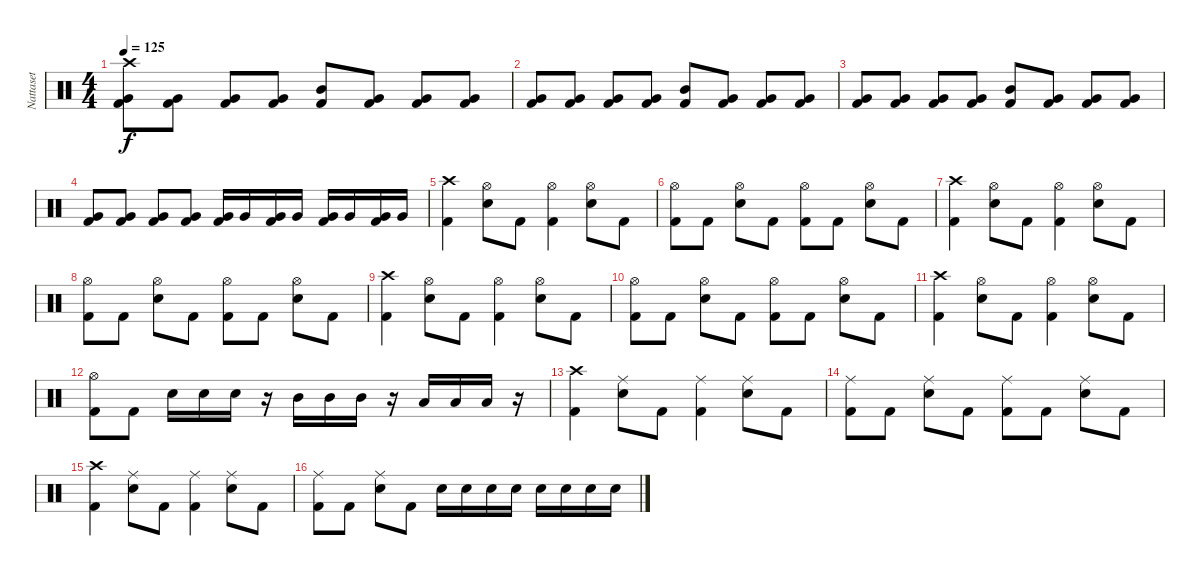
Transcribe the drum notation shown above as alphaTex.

\track ("Nattaset" "Nattaset") {instrument percussion}
\staff {score}
\articulation defaults
\ts (4 4)
\tempo 125
\clef neutral
\ks c
("Kick (hit) 2" "Very Low Tom (hit)" "Crash high (hit)").8{dy f} ("Kick (hit) 2" "Very Low Tom (hit)").8 ("Kick (hit) 2" "Very Low Tom (hit)").8 ("Kick (hit) 2" "Very Low Tom (hit)").8 ("Kick (hit) 2" "Mid Tom (hit)").8 ("Kick (hit) 2" "Very Low Tom (hit)").8 ("Kick (hit) 2" "Very Low Tom (hit)").8 ("Kick (hit) 2" "Very Low Tom (hit)").8 |
("Kick (hit) 2" "Very Low Tom (hit)").8 ("Kick (hit) 2" "Very Low Tom (hit)").8 ("Kick (hit) 2" "Very Low Tom (hit)").8 ("Kick (hit) 2" "Very Low Tom (hit)").8 ("Kick (hit) 2" "Mid Tom (hit)").8 ("Kick (hit) 2" "Very Low Tom (hit)").8 ("Kick (hit) 2" "Very Low Tom (hit)").8 ("Kick (hit) 2" "Very Low Tom (hit)").8 |
("Kick (hit) 2" "Very Low Tom (hit)").8 ("Kick (hit) 2" "Very Low Tom (hit)").8 ("Kick (hit) 2" "Very Low Tom (hit)").8 ("Kick (hit) 2" "Very Low Tom (hit)").8 ("Kick (hit) 2" "Mid Tom (hit)").8 ("Kick (hit) 2" "Very Low Tom (hit)").8 ("Kick (hit) 2" "Very Low Tom (hit)").8 ("Kick (hit) 2" "Very Low Tom (hit)").8 |
("Kick (hit) 2" "Very Low Tom (hit)").8 ("Kick (hit) 2" "Very Low Tom (hit)").8 ("Kick (hit) 2" "Very Low Tom (hit)").8 ("Kick (hit) 2" "Very Low Tom (hit)").8 ("Kick (hit) 2" "Very Low Tom (hit)").16 "Very Low Tom (hit)".16 ("Kick (hit) 2" "Very Low Tom (hit)").16 "Very Low Tom (hit)".16 ("Kick (hit) 2" "Very Low Tom (hit)").16 "Very Low Tom (hit)".16 ("Kick (hit) 2" "Very Low Tom (hit)").16 "Very Low Tom (hit)".16 |
("Kick (hit) 2" "Crash high (hit)").4 ("Snare (hit) 2" "Hi-Hat (open)").8 "Kick (hit) 2".8 ("Kick (hit) 2" "Hi-Hat (open)").4 ("Snare (hit) 2" "Hi-Hat (open)").8 "Kick (hit) 2".8 |
("Kick (hit) 2" "Hi-Hat (open)").8 "Kick (hit) 2".8 ("Snare (hit) 2" "Hi-Hat (open)").8 "Kick (hit) 2".8 ("Kick (hit) 2" "Hi-Hat (open)").8 "Kick (hit) 2".8 ("Snare (hit) 2" "Hi-Hat (open)").8 "Kick (hit) 2".8 |
("Kick (hit) 2" "Crash high (hit)").4 ("Snare (hit) 2" "Hi-Hat (open)").8 "Kick (hit) 2".8 ("Kick (hit) 2" "Hi-Hat (open)").4 ("Snare (hit) 2" "Hi-Hat (open)").8 "Kick (hit) 2".8 |
("Kick (hit) 2" "Hi-Hat (open)").8 "Kick (hit) 2".8 ("Snare (hit) 2" "Hi-Hat (open)").8 "Kick (hit) 2".8 ("Kick (hit) 2" "Hi-Hat (open)").8 "Kick (hit) 2".8 ("Snare (hit) 2" "Hi-Hat (open)").8 "Kick (hit) 2".8 |
("Kick (hit) 2" "Crash high (hit)").4 ("Snare (hit) 2" "Hi-Hat (open)").8 "Kick (hit) 2".8 ("Kick (hit) 2" "Hi-Hat (open)").4 ("Snare (hit) 2" "Hi-Hat (open)").8 "Kick (hit) 2".8 |
("Kick (hit) 2" "Hi-Hat (open)").8 "Kick (hit) 2".8 ("Snare (hit) 2" "Hi-Hat (open)").8 "Kick (hit) 2".8 ("Kick (hit) 2" "Hi-Hat (open)").8 "Kick (hit) 2".8 ("Snare (hit) 2" "Hi-Hat (open)").8 "Kick (hit) 2".8 |
("Kick (hit) 2" "Crash high (hit)").4 ("Snare (hit) 2" "Hi-Hat (open)").8 "Kick (hit) 2".8 ("Kick (hit) 2" "Hi-Hat (open)").4 ("Snare (hit) 2" "Hi-Hat (open)").8 "Kick (hit) 2".8 |
("Kick (hit) 2" "Hi-Hat (open)").8 "Kick (hit) 2".8 "Snare (hit) 2".16 "Snare (hit) 2".16 "Snare (hit) 2".16 r.16 "Mid Tom (hit)".16 "Mid Tom (hit)".16 "Mid Tom (hit)".16 r.16 "Low Tom (hit)".16 "Low Tom (hit)".16 "Low Tom (hit)".16 r.16 |
("Kick (hit) 2" "Crash high (hit)").4 ("Snare (hit) 2" "Ride (middle)").8 "Kick (hit) 2".8 ("Kick (hit) 2" "Ride (middle)").4 ("Snare (hit) 2" "Ride (middle)").8 "Kick (hit) 2".8 |
("Kick (hit) 2" "Ride (middle)").8 "Kick (hit) 2".8 ("Snare (hit) 2" "Ride (middle)").8 "Kick (hit) 2".8 ("Kick (hit) 2" "Ride (middle)").8 "Kick (hit) 2".8 ("Snare (hit) 2" "Ride (middle)").8 "Kick (hit) 2".8 |
("Kick (hit) 2" "Crash high (hit)").4 ("Snare (hit) 2" "Ride (middle)").8 "Kick (hit) 2".8 ("Kick (hit) 2" "Ride (middle)").4 ("Snare (hit) 2" "Ride (middle)").8 "Kick (hit) 2".8 |
("Kick (hit) 2" "Ride (middle)").8 "Kick (hit) 2".8 ("Snare (hit) 2" "Ride (middle)").8 "Kick (hit) 2".8 "Snare (hit) 2".16 "Snare (hit) 2".16 "Snare (hit) 2".16 "Snare (hit) 2".16 "Snare (hit) 2".16 "Snare (hit) 2".16 "Snare (hit) 2".16 "Snare (hit) 2".16
